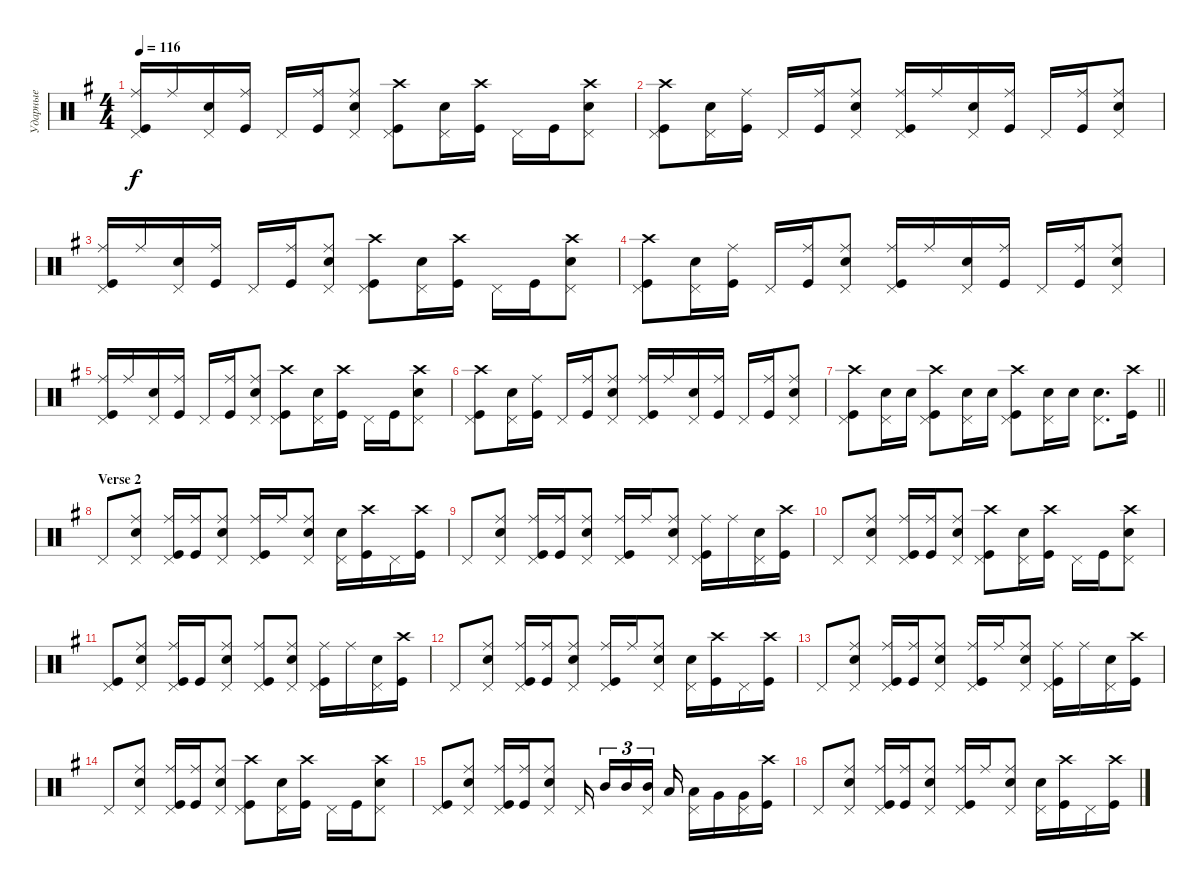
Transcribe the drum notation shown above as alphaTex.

\track ("Ударные" "Ударные") {instrument percussion}
\staff {score}
\articulation defaults
\ts (4 4)
\tempo 116
\clef neutral
\ks eminor
("Kick (hit)" "Ride (middle)" "Pedal Hi-Hat (hit)").16{dy f} "Ride (middle)".16 ("Snare (hit) 2" "Pedal Hi-Hat (hit)").16 ("Kick (hit)" "Ride (middle)").16 "Pedal Hi-Hat (hit)".16 ("Ride (middle)" "Kick (hit)").16 ("Snare (hit) 2" "Ride (middle)" "Pedal Hi-Hat (hit)").8 ("Kick (hit)" "Crash high (hit)" "Pedal Hi-Hat (hit)").8 ("Snare (hit) 2" "Pedal Hi-Hat (hit)").16 ("Kick (hit)" "Crash high (hit)").16 "Pedal Hi-Hat (hit)".16 "Kick (hit)".16 ("Crash high (hit)" "Snare (hit) 2" "Pedal Hi-Hat (hit)").8 |
("Kick (hit)" "Crash high (hit)" "Pedal Hi-Hat (hit)").8 ("Snare (hit) 2" "Pedal Hi-Hat (hit)").16 ("Kick (hit)" "Ride (middle)").16 "Pedal Hi-Hat (hit)".16 ("Ride (middle)" "Kick (hit)").16 ("Snare (hit) 2" "Ride (middle)" "Pedal Hi-Hat (hit)").8 ("Kick (hit)" "Ride (middle)" "Pedal Hi-Hat (hit)").16 "Ride (middle)".16 ("Snare (hit) 2" "Pedal Hi-Hat (hit)").16 ("Kick (hit)" "Ride (middle)").16 "Pedal Hi-Hat (hit)".16 ("Ride (middle)" "Kick (hit)").16 ("Ride (middle)" "Snare (hit) 2" "Pedal Hi-Hat (hit)").8 |
("Kick (hit)" "Ride (middle)" "Pedal Hi-Hat (hit)").16 "Ride (middle)".16 ("Snare (hit) 2" "Pedal Hi-Hat (hit)").16 ("Kick (hit)" "Ride (middle)").16 "Pedal Hi-Hat (hit)".16 ("Ride (middle)" "Kick (hit)").16 ("Snare (hit) 2" "Ride (middle)" "Pedal Hi-Hat (hit)").8 ("Kick (hit)" "Crash high (hit)" "Pedal Hi-Hat (hit)").8 ("Snare (hit) 2" "Pedal Hi-Hat (hit)").16 ("Kick (hit)" "Crash high (hit)").16 "Pedal Hi-Hat (hit)".16 "Kick (hit)".16 ("Crash high (hit)" "Snare (hit) 2" "Pedal Hi-Hat (hit)").8 |
("Kick (hit)" "Crash high (hit)" "Pedal Hi-Hat (hit)").8 ("Snare (hit) 2" "Pedal Hi-Hat (hit)").16 ("Kick (hit)" "Ride (middle)").16 "Pedal Hi-Hat (hit)".16 ("Ride (middle)" "Kick (hit)").16 ("Snare (hit) 2" "Ride (middle)" "Pedal Hi-Hat (hit)").8 ("Kick (hit)" "Ride (middle)" "Pedal Hi-Hat (hit)").16 "Ride (middle)".16 ("Snare (hit) 2" "Pedal Hi-Hat (hit)").16 ("Kick (hit)" "Ride (middle)").16 "Pedal Hi-Hat (hit)".16 ("Ride (middle)" "Kick (hit)").16 ("Ride (middle)" "Snare (hit) 2" "Pedal Hi-Hat (hit)").8 |
("Kick (hit)" "Ride (middle)" "Pedal Hi-Hat (hit)").16 "Ride (middle)".16 ("Snare (hit) 2" "Pedal Hi-Hat (hit)").16 ("Kick (hit)" "Ride (middle)").16 "Pedal Hi-Hat (hit)".16 ("Ride (middle)" "Kick (hit)").16 ("Snare (hit) 2" "Ride (middle)" "Pedal Hi-Hat (hit)").8 ("Kick (hit)" "Crash high (hit)" "Pedal Hi-Hat (hit)").8 ("Snare (hit) 2" "Pedal Hi-Hat (hit)").16 ("Kick (hit)" "Crash high (hit)").16 "Pedal Hi-Hat (hit)".16 "Kick (hit)".16 ("Crash high (hit)" "Snare (hit) 2" "Pedal Hi-Hat (hit)").8 |
("Kick (hit)" "Crash high (hit)" "Pedal Hi-Hat (hit)").8 ("Snare (hit) 2" "Pedal Hi-Hat (hit)").16 ("Kick (hit)" "Ride (middle)").16 "Pedal Hi-Hat (hit)".16 ("Ride (middle)" "Kick (hit)").16 ("Snare (hit) 2" "Ride (middle)" "Pedal Hi-Hat (hit)").8 ("Kick (hit)" "Ride (middle)" "Pedal Hi-Hat (hit)").16 "Ride (middle)".16 ("Snare (hit) 2" "Pedal Hi-Hat (hit)").16 ("Kick (hit)" "Ride (middle)").16 "Pedal Hi-Hat (hit)".16 ("Ride (middle)" "Kick (hit)").16 ("Ride (middle)" "Snare (hit) 2" "Pedal Hi-Hat (hit)").8 |
\barLineRight lightlight
("Kick (hit)" "Crash high (hit)" "Pedal Hi-Hat (hit)").8 ("Snare (hit) 2" "Pedal Hi-Hat (hit)").16 "Snare (hit) 2".16 ("Kick (hit)" "Crash high (hit)" "Pedal Hi-Hat (hit)").8 ("Snare (hit) 2" "Pedal Hi-Hat (hit)").16 "Snare (hit) 2".16 ("Kick (hit)" "Crash high (hit)" "Pedal Hi-Hat (hit)").8 ("Snare (hit) 2" "Pedal Hi-Hat (hit)").16 "Snare (hit) 2".16 ("Snare (hit) 2" "Pedal Hi-Hat (hit)").8{d} ("Kick (hit)" "Crash high (hit)").16 |
\section ("" "Verse 2")
"Pedal Hi-Hat (hit)".8 ("Snare (hit) 2" "Pedal Hi-Hat (hit)" "Ride (middle)").8 ("Kick (hit)" "Pedal Hi-Hat (hit)" "Ride (middle)").16 ("Kick (hit)" "Ride (middle)").16 ("Snare (hit) 2" "Pedal Hi-Hat (hit)" "Ride (middle)").8 ("Pedal Hi-Hat (hit)" "Kick (hit)" "Ride (middle)").16 "Ride (middle)".16 ("Snare (hit) 2" "Pedal Hi-Hat (hit)" "Ride (middle)").8 ("Snare (hit) 2" "Pedal Hi-Hat (hit)").16 ("Kick (hit)" "Crash high (hit)").16 "Pedal Hi-Hat (hit)".16 ("Kick (hit)" "Crash high (hit)").16 |
"Pedal Hi-Hat (hit)".8 ("Snare (hit) 2" "Pedal Hi-Hat (hit)" "Ride (middle)").8 ("Kick (hit)" "Pedal Hi-Hat (hit)" "Ride (middle)").16 ("Kick (hit)" "Ride (middle)").16 ("Snare (hit) 2" "Pedal Hi-Hat (hit)" "Ride (middle)").8 ("Kick (hit)" "Pedal Hi-Hat (hit)" "Ride (middle)").16 "Ride (middle)".16 ("Snare (hit) 2" "Pedal Hi-Hat (hit)" "Ride (middle)").8 ("Kick (hit)" "Ride (middle)" "Pedal Hi-Hat (hit)").16 "Ride (middle)".16 ("Snare (hit) 2" "Pedal Hi-Hat (hit)").16 ("Kick (hit)" "Crash high (hit)").16 |
"Pedal Hi-Hat (hit)".8 ("Snare (hit) 2" "Ride (middle)" "Pedal Hi-Hat (hit)").8 ("Kick (hit)" "Ride (middle)" "Pedal Hi-Hat (hit)").16 ("Kick (hit)" "Ride (middle)").16 ("Snare (hit) 2" "Ride (middle)" "Pedal Hi-Hat (hit)").8 ("Kick (hit)" "Crash high (hit)" "Pedal Hi-Hat (hit)").8 ("Snare (hit) 2" "Pedal Hi-Hat (hit)").16 ("Kick (hit)" "Crash high (hit)").16 "Pedal Hi-Hat (hit)".16 "Kick (hit)".16 ("Snare (hit) 2" "Crash high (hit)" "Pedal Hi-Hat (hit)").8 |
("Kick (hit)" "Pedal Hi-Hat (hit)").8 ("Snare (hit) 2" "Pedal Hi-Hat (hit)" "Ride (middle)").8 ("Kick (hit)" "Pedal Hi-Hat (hit)" "Ride (middle)").16 "Kick (hit)".16 ("Snare (hit) 2" "Pedal Hi-Hat (hit)" "Ride (middle)").8 ("Kick (hit)" "Pedal Hi-Hat (hit)" "Ride (middle)").8{bd 120} ("Snare (hit) 2" "Pedal Hi-Hat (hit)" "Ride (middle)").8 ("Kick (hit)" "Pedal Hi-Hat (hit)" "Ride (middle)").16{bd 120} "Ride (middle)".16 ("Snare (hit) 2" "Pedal Hi-Hat (hit)").16 ("Kick (hit)" "Crash high (hit)").16 |
"Pedal Hi-Hat (hit)".8 ("Snare (hit) 2" "Pedal Hi-Hat (hit)" "Ride (middle)").8 ("Kick (hit)" "Pedal Hi-Hat (hit)" "Ride (middle)").16 ("Kick (hit)" "Ride (middle)").16 ("Snare (hit) 2" "Pedal Hi-Hat (hit)" "Ride (middle)").8 ("Pedal Hi-Hat (hit)" "Kick (hit)" "Ride (middle)").16 "Ride (middle)".16 ("Snare (hit) 2" "Pedal Hi-Hat (hit)" "Ride (middle)").8 ("Snare (hit) 2" "Pedal Hi-Hat (hit)").16 ("Kick (hit)" "Crash high (hit)").16 "Pedal Hi-Hat (hit)".16 ("Kick (hit)" "Crash high (hit)").16 |
"Pedal Hi-Hat (hit)".8 ("Snare (hit) 2" "Pedal Hi-Hat (hit)" "Ride (middle)").8 ("Kick (hit)" "Pedal Hi-Hat (hit)" "Ride (middle)").16 ("Kick (hit)" "Ride (middle)").16 ("Snare (hit) 2" "Pedal Hi-Hat (hit)" "Ride (middle)").8 ("Kick (hit)" "Pedal Hi-Hat (hit)" "Ride (middle)").16 "Ride (middle)".16 ("Snare (hit) 2" "Pedal Hi-Hat (hit)" "Ride (middle)").8 ("Kick (hit)" "Ride (middle)" "Pedal Hi-Hat (hit)").16 "Ride (middle)".16 ("Snare (hit) 2" "Pedal Hi-Hat (hit)").16 ("Kick (hit)" "Crash high (hit)").16 |
"Pedal Hi-Hat (hit)".8 ("Snare (hit) 2" "Ride (middle)" "Pedal Hi-Hat (hit)").8 ("Kick (hit)" "Ride (middle)" "Pedal Hi-Hat (hit)").16 ("Kick (hit)" "Ride (middle)").16 ("Snare (hit) 2" "Ride (middle)" "Pedal Hi-Hat (hit)").8 ("Kick (hit)" "Crash high (hit)" "Pedal Hi-Hat (hit)").8 ("Snare (hit) 2" "Pedal Hi-Hat (hit)").16 ("Kick (hit)" "Crash high (hit)").16 "Pedal Hi-Hat (hit)".16 "Kick (hit)".16 ("Snare (hit) 2" "Crash high (hit)" "Pedal Hi-Hat (hit)").8 |
("Kick (hit)" "Pedal Hi-Hat (hit)").8 ("Snare (hit) 2" "Ride (middle)" "Pedal Hi-Hat (hit)").8 ("Kick (hit)" "Ride (middle)" "Pedal Hi-Hat (hit)").16 ("Kick (hit)" "Ride (middle)").16 ("Snare (hit) 2" "Ride (middle)" "Pedal Hi-Hat (hit)").8 "Pedal Hi-Hat (hit)".16{beam splitsecondary} "Mid Tom (hit)".16{tu (3 2)} "Mid Tom (hit)".16{tu (3 2)} ("Mid Tom (hit)" "Pedal Hi-Hat (hit)").16{tu (3 2) beam splitsecondary} "Low Tom (hit)".16 ("Low Tom (hit)" "Pedal Hi-Hat (hit)").16 "Very Low Tom (hit)".16 ("Pedal Hi-Hat (hit)" "Very Low Tom (hit)").16 ("Kick (hit)" "Crash high (hit)").16 |
"Pedal Hi-Hat (hit)".8 ("Snare (hit) 2" "Pedal Hi-Hat (hit)" "Ride (middle)").8 ("Kick (hit)" "Pedal Hi-Hat (hit)" "Ride (middle)").16 ("Kick (hit)" "Ride (middle)").16 ("Snare (hit) 2" "Pedal Hi-Hat (hit)" "Ride (middle)").8 ("Pedal Hi-Hat (hit)" "Kick (hit)" "Ride (middle)").16 "Ride (middle)".16 ("Snare (hit) 2" "Pedal Hi-Hat (hit)" "Ride (middle)").8 ("Snare (hit) 2" "Pedal Hi-Hat (hit)").16 ("Kick (hit)" "Crash high (hit)").16 "Pedal Hi-Hat (hit)".16 ("Kick (hit)" "Crash high (hit)").16
